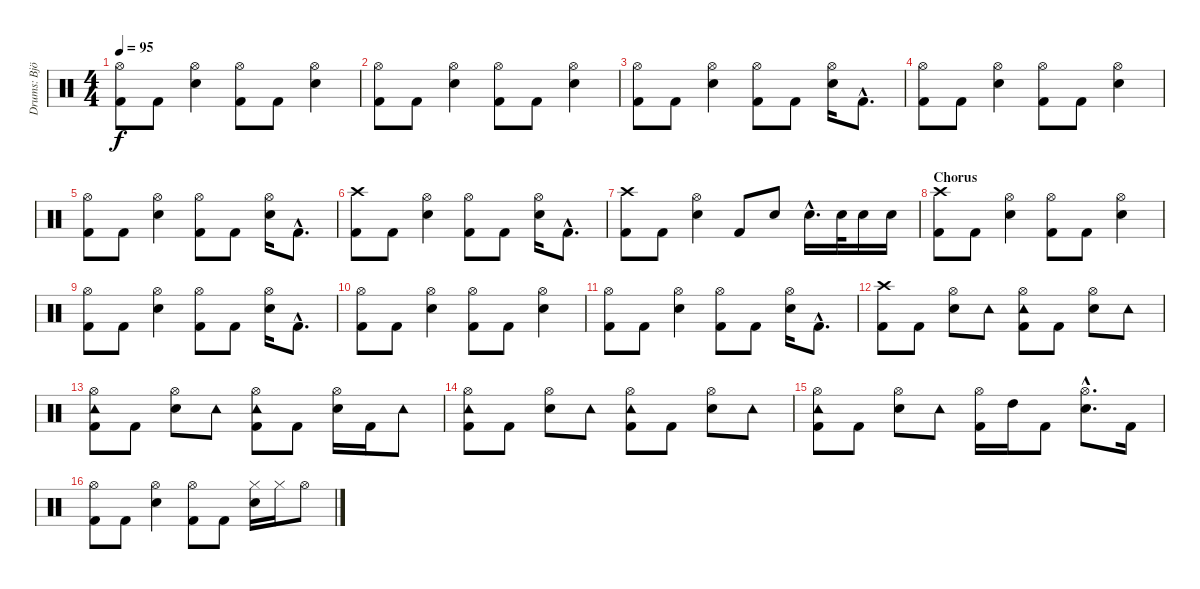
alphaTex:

\track ("Drums: Björn Fryklund" "Drums: Bjö") {instrument percussion}
\staff {score}
\articulation defaults
\ts (4 4)
\tempo 95
\clef neutral
\ks c
("Hi-Hat (open)" "Kick (hit) 2").8{dy f} "Kick (hit) 2".8 ("Hi-Hat (open)" "Snare (hit) 2").4 ("Hi-Hat (open)" "Kick (hit) 2").8 "Kick (hit) 2".8 ("Hi-Hat (open)" "Snare (hit) 2").4 |
("Hi-Hat (open)" "Kick (hit) 2").8 "Kick (hit) 2".8 ("Hi-Hat (open)" "Snare (hit) 2").4 ("Hi-Hat (open)" "Kick (hit) 2").8 "Kick (hit) 2".8 ("Hi-Hat (open)" "Snare (hit) 2").4 |
("Hi-Hat (open)" "Kick (hit) 2").8 "Kick (hit) 2".8 ("Hi-Hat (open)" "Snare (hit) 2").4 ("Hi-Hat (open)" "Kick (hit) 2").8 "Kick (hit) 2".8 ("Hi-Hat (open)" "Snare (hit) 2").16 "Kick (hit) 2"{hac}.8{d} |
("Hi-Hat (open)" "Kick (hit) 2").8 "Kick (hit) 2".8 ("Hi-Hat (open)" "Snare (hit) 2").4 ("Hi-Hat (open)" "Kick (hit) 2").8 "Kick (hit) 2".8 ("Hi-Hat (open)" "Snare (hit) 2").4 |
("Hi-Hat (open)" "Kick (hit) 2").8 "Kick (hit) 2".8 ("Hi-Hat (open)" "Snare (hit) 2").4 ("Hi-Hat (open)" "Kick (hit) 2").8 "Kick (hit) 2".8 ("Hi-Hat (open)" "Snare (hit) 2").16 "Kick (hit) 2"{hac}.8{d} |
("Crash high (hit)" "Kick (hit) 2").8 "Kick (hit) 2".8 ("Hi-Hat (open)" "Snare (hit) 2").4 ("Hi-Hat (open)" "Kick (hit) 2").8 "Kick (hit) 2".8 ("Hi-Hat (open)" "Snare (hit) 2").16 "Kick (hit) 2"{hac}.8{d} |
("Crash high (hit)" "Kick (hit) 2").8 "Kick (hit) 2".8 ("Hi-Hat (open)" "Snare (hit) 2").4 "Kick (hit) 2".8 "Snare (hit) 2".8 "Snare (hit) 2"{hac}.16{d} "Snare (hit) 2".32 "Snare (hit) 2".16 "Snare (hit) 2".16 |
\section ("" "Chorus")
("Crash high (hit)" "Kick (hit) 2").8 "Kick (hit) 2".8 ("Hi-Hat (open)" "Snare (hit) 2").4 ("Hi-Hat (open)" "Kick (hit) 2").8 "Kick (hit) 2".8 ("Hi-Hat (open)" "Snare (hit) 2").4 |
("Hi-Hat (open)" "Kick (hit) 2").8 "Kick (hit) 2".8 ("Hi-Hat (open)" "Snare (hit) 2").4 ("Hi-Hat (open)" "Kick (hit) 2").8 "Kick (hit) 2".8 ("Hi-Hat (open)" "Snare (hit) 2").16 "Kick (hit) 2"{hac}.8{d} |
("Hi-Hat (open)" "Kick (hit) 2").8 "Kick (hit) 2".8 ("Hi-Hat (open)" "Snare (hit) 2").4 ("Hi-Hat (open)" "Kick (hit) 2").8 "Kick (hit) 2".8 ("Hi-Hat (open)" "Snare (hit) 2").4 |
("Hi-Hat (open)" "Kick (hit) 2").8 "Kick (hit) 2".8 ("Hi-Hat (open)" "Snare (hit) 2").4 ("Hi-Hat (open)" "Kick (hit) 2").8 "Kick (hit) 2".8 ("Hi-Hat (open)" "Snare (hit) 2").16 "Kick (hit) 2"{hac}.8{d} |
("Crash high (hit)" "Kick (hit) 2").8 "Kick (hit) 2".8 ("Hi-Hat (open)" "Snare (hit) 2").8 "Tambourine (hit)".8 ("Tambourine (hit)" "Hi-Hat (open)" "Kick (hit) 2").8 "Kick (hit) 2".8 ("Hi-Hat (open)" "Snare (hit) 2").8 "Tambourine (hit)".8 |
("Tambourine (hit)" "Hi-Hat (open)" "Kick (hit) 2").8 "Kick (hit) 2".8 ("Hi-Hat (open)" "Snare (hit) 2").8 "Tambourine (hit)".8 ("Tambourine (hit)" "Hi-Hat (open)" "Kick (hit) 2").8 "Kick (hit) 2".8 ("Hi-Hat (open)" "Snare (hit) 2").16 "Kick (hit) 2".16 "Tambourine (hit)".8 |
("Tambourine (hit)" "Hi-Hat (open)" "Kick (hit) 2").8 "Kick (hit) 2".8 ("Hi-Hat (open)" "Snare (hit) 2").8 "Tambourine (hit)".8 ("Tambourine (hit)" "Hi-Hat (open)" "Kick (hit) 2").8 "Kick (hit) 2".8 ("Hi-Hat (open)" "Snare (hit) 2").8 "Tambourine (hit)".8 |
("Tambourine (hit)" "Hi-Hat (open)" "Kick (hit) 2").8 "Kick (hit) 2".8 ("Hi-Hat (open)" "Snare (hit) 2").8 "Tambourine (hit)".8 ("Hi-Hat (open)" "Kick (hit) 2").16 "High Tom (hit)".16 "Kick (hit) 2".8 ("Hi-Hat (open)"{hac} "Snare (hit) 2"{hac}).8{d} "Kick (hit) 2".16 |
("Hi-Hat (open)" "Kick (hit) 2").8 "Kick (hit) 2".8 ("Hi-Hat (open)" "Snare (hit) 2").4 ("Hi-Hat (open)" "Kick (hit) 2").8 "Kick (hit) 2".8 ("Hi-Hat (closed)" "Snare (hit) 2").16 "Hi-Hat (closed)".16 "Hi-Hat (open)".8
